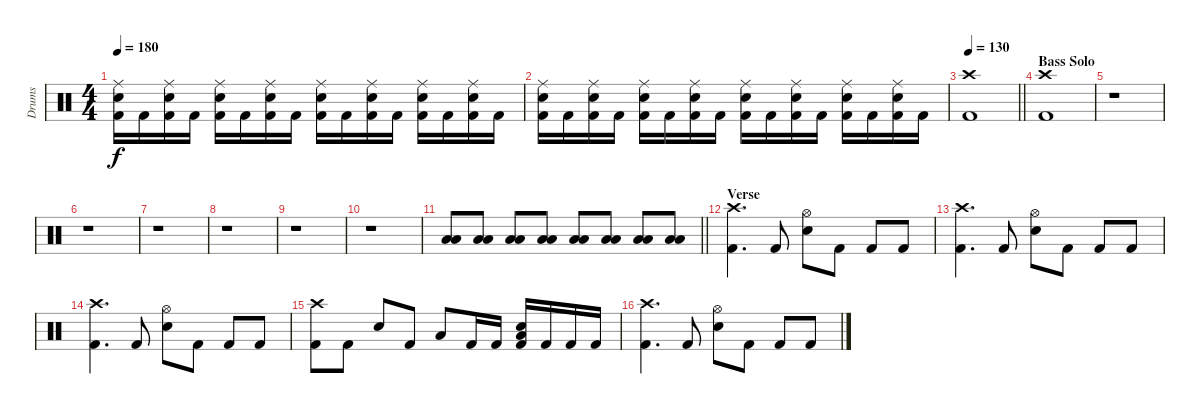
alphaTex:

\track ("Drums" "Drums") {instrument percussion}
\staff {score}
\articulation defaults
\ts (4 4)
\tempo 180
\clef neutral
\ks c
("Ride (middle)" "Electric Snare (hit)" "Kick (hit) 2").16{dy f} "Kick (hit) 2".16 ("Ride (middle)" "Electric Snare (hit)" "Kick (hit) 2").16 "Kick (hit) 2".16 ("Ride (middle)" "Electric Snare (hit)" "Kick (hit) 2").16 "Kick (hit) 2".16 ("Ride (middle)" "Electric Snare (hit)" "Kick (hit) 2").16 "Kick (hit) 2".16 ("Ride (middle)" "Electric Snare (hit)" "Kick (hit) 2").16 "Kick (hit) 2".16 ("Ride (middle)" "Electric Snare (hit)" "Kick (hit) 2").16 "Kick (hit) 2".16 ("Ride (middle)" "Electric Snare (hit)" "Kick (hit) 2").16 "Kick (hit) 2".16 ("Ride (middle)" "Electric Snare (hit)" "Kick (hit) 2").16 "Kick (hit) 2".16 |
("Ride (middle)" "Electric Snare (hit)" "Kick (hit) 2").16 "Kick (hit) 2".16 ("Ride (middle)" "Electric Snare (hit)" "Kick (hit) 2").16 "Kick (hit) 2".16 ("Ride (middle)" "Electric Snare (hit)" "Kick (hit) 2").16 "Kick (hit) 2".16 ("Ride (middle)" "Electric Snare (hit)" "Kick (hit) 2").16 "Kick (hit) 2".16 ("Ride (middle)" "Electric Snare (hit)" "Kick (hit) 2").16 "Kick (hit) 2".16 ("Ride (middle)" "Electric Snare (hit)" "Kick (hit) 2").16 "Kick (hit) 2".16 ("Ride (middle)" "Electric Snare (hit)" "Kick (hit) 2").16 "Kick (hit) 2".16 ("Ride (middle)" "Electric Snare (hit)" "Kick (hit) 2").16 "Kick (hit) 2".16 |
\tempo 130
\barLineRight lightlight
("Crash high (hit)" "Kick (hit) 2").1 |
\section ("" "Bass Solo")
("Crash high (hit)" "Kick (hit) 2").1 |
r.1 |
r.1 |
r.1 |
r.1 |
r.1 |
r.1 |
\barLineRight lightlight
("Low Floor Tom (hit)" "Low Tom (hit)").8 ("Low Floor Tom (hit)" "Low Tom (hit)").8 ("Low Floor Tom (hit)" "Low Tom (hit)").8 ("Low Floor Tom (hit)" "Low Tom (hit)").8 ("Low Floor Tom (hit)" "Low Tom (hit)").8 ("Low Floor Tom (hit)" "Low Tom (hit)").8 ("Low Floor Tom (hit)" "Low Tom (hit)").8 ("Low Floor Tom (hit)" "Low Tom (hit)").8 |
\section ("" "Verse")
("Crash high (hit)" "Kick (hit) 2").4{d} "Kick (hit) 2".8 ("Hi-Hat (open)" "Electric Snare (hit)").8 "Kick (hit) 2".8 "Kick (hit) 2".8 "Kick (hit) 2".8 |
("Crash high (hit)" "Kick (hit) 2").4{d} "Kick (hit) 2".8 ("Hi-Hat (open)" "Electric Snare (hit)").8 "Kick (hit) 2".8 "Kick (hit) 2".8 "Kick (hit) 2".8 |
("Crash high (hit)" "Kick (hit) 2").4{d} "Kick (hit) 2".8 ("Hi-Hat (open)" "Electric Snare (hit)").8 "Kick (hit) 2".8 "Kick (hit) 2".8 "Kick (hit) 2".8 |
("Crash high (hit)" "Kick (hit) 2").8 "Kick (hit) 2".8 "Electric Snare (hit)".8 "Kick (hit) 2".8 "Low Tom (hit)".8 "Kick (hit) 2".16 "Kick (hit) 2".16 ("Low Floor Tom (hit)" "Electric Snare (hit)" "Kick (hit) 2").16 "Kick (hit) 2".16 "Kick (hit) 2".16 "Kick (hit) 2".16 |
("Crash high (hit)" "Kick (hit) 2").4{d} "Kick (hit) 2".8 ("Hi-Hat (open)" "Electric Snare (hit)").8 "Kick (hit) 2".8 "Kick (hit) 2".8 "Kick (hit) 2".8
